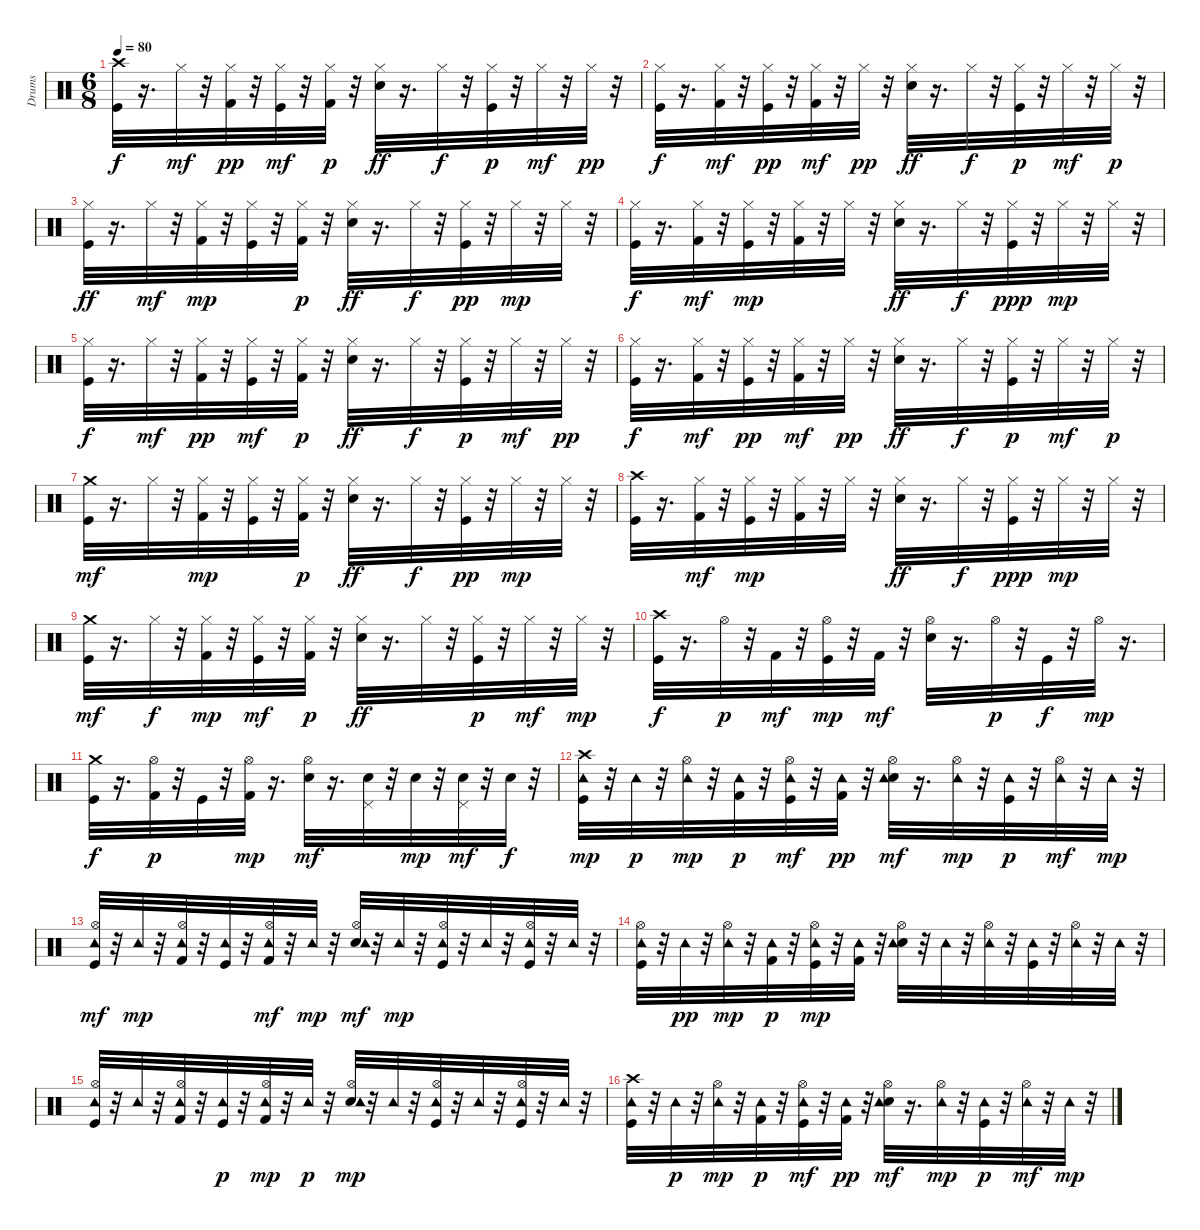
\track ("Drums" "Drums") {instrument percussion}
\staff {score}
\articulation defaults
\ts (6 8)
\tempo 80
\clef neutral
\ks c
("Kick (hit)" "Crash high (hit)").32{dy f} r.16{d} "Hi-Hat (closed)".32{dy mf} r.32 ("Kick (hit) 2" "Hi-Hat (closed)").32{dy pp} r.32 ("Kick (hit)" "Hi-Hat (closed)").32{dy mf} r.32 ("Kick (hit) 2" "Hi-Hat (closed)").32{dy p} r.32 ("Electric Snare (hit)" "Hi-Hat (closed)").32{dy ff} r.16{d} "Hi-Hat (closed)".32{dy f} r.32 ("Kick (hit)" "Hi-Hat (closed)").32{dy p} r.32 "Hi-Hat (closed)".32{dy mf} r.32 "Hi-Hat (closed)".32{dy pp} r.32 |
("Kick (hit)" "Hi-Hat (closed)").32{dy f} r.16{d} ("Kick (hit) 2" "Hi-Hat (closed)").32{dy mf} r.32 ("Kick (hit)" "Hi-Hat (closed)").32{dy pp} r.32 ("Kick (hit) 2" "Hi-Hat (closed)").32{dy mf} r.32 "Hi-Hat (closed)".32{dy pp} r.32 ("Electric Snare (hit)" "Hi-Hat (closed)").32{dy ff} r.16{d} "Hi-Hat (closed)".32{dy f} r.32 ("Kick (hit)" "Hi-Hat (closed)").32{dy p} r.32 "Hi-Hat (closed)".32{dy mf} r.32 "Hi-Hat (closed)".32{dy p} r.32 |
("Kick (hit)" "Hi-Hat (closed)").32{dy ff} r.16{d} "Hi-Hat (closed)".32{dy mf} r.32 ("Kick (hit) 2" "Hi-Hat (closed)").32{dy mp} r.32 ("Kick (hit)" "Hi-Hat (closed)").32 r.32 ("Kick (hit) 2" "Hi-Hat (closed)").32{dy p} r.32 ("Electric Snare (hit)" "Hi-Hat (closed)").32{dy ff} r.16{d} "Hi-Hat (closed)".32{dy f} r.32 ("Kick (hit)" "Hi-Hat (closed)").32{dy pp} r.32 "Hi-Hat (closed)".32{dy mp} r.32 "Hi-Hat (closed)".32 r.32 |
("Kick (hit)" "Hi-Hat (closed)").32{dy f} r.16{d} ("Kick (hit) 2" "Hi-Hat (closed)").32{dy mf} r.32 ("Kick (hit)" "Hi-Hat (closed)").32{dy mp} r.32 ("Kick (hit) 2" "Hi-Hat (closed)").32 r.32 "Hi-Hat (closed)".32 r.32 ("Electric Snare (hit)" "Hi-Hat (closed)").32{dy ff} r.16{d} "Hi-Hat (closed)".32{dy f} r.32 ("Kick (hit)" "Hi-Hat (closed)").32{dy ppp} r.32 "Hi-Hat (closed)".32{dy mp} r.32 "Hi-Hat (closed)".32 r.32 |
("Kick (hit)" "Hi-Hat (closed)").32{dy f} r.16{d} "Hi-Hat (closed)".32{dy mf} r.32 ("Kick (hit) 2" "Hi-Hat (closed)").32{dy pp} r.32 ("Kick (hit)" "Hi-Hat (closed)").32{dy mf} r.32 ("Kick (hit) 2" "Hi-Hat (closed)").32{dy p} r.32 ("Electric Snare (hit)" "Hi-Hat (closed)").32{dy ff} r.16{d} "Hi-Hat (closed)".32{dy f} r.32 ("Kick (hit)" "Hi-Hat (closed)").32{dy p} r.32 "Hi-Hat (closed)".32{dy mf} r.32 "Hi-Hat (closed)".32{dy pp} r.32 |
("Kick (hit)" "Hi-Hat (closed)").32{dy f} r.16{d} ("Kick (hit) 2" "Hi-Hat (closed)").32{dy mf} r.32 ("Kick (hit)" "Hi-Hat (closed)").32{dy pp} r.32 ("Kick (hit) 2" "Hi-Hat (closed)").32{dy mf} r.32 "Hi-Hat (closed)".32{dy pp} r.32 ("Electric Snare (hit)" "Hi-Hat (closed)").32{dy ff} r.16{d} "Hi-Hat (closed)".32{dy f} r.32 ("Kick (hit)" "Hi-Hat (closed)").32{dy p} r.32 "Hi-Hat (closed)".32{dy mf} r.32 "Hi-Hat (closed)".32{dy p} r.32 |
("Kick (hit)" "Crash medium (hit)").32{dy mf} r.16{d} "Hi-Hat (closed)".32 r.32 ("Kick (hit) 2" "Hi-Hat (closed)").32{dy mp} r.32 ("Kick (hit)" "Hi-Hat (closed)").32 r.32 ("Kick (hit) 2" "Hi-Hat (closed)").32{dy p} r.32 ("Electric Snare (hit)" "Hi-Hat (closed)").32{dy ff} r.16{d} "Hi-Hat (closed)".32{dy f} r.32 ("Kick (hit)" "Hi-Hat (closed)").32{dy pp} r.32 "Hi-Hat (closed)".32{dy mp} r.32 "Hi-Hat (closed)".32 r.32 |
("Kick (hit)" "Crash high (hit)").32 r.16{d} ("Kick (hit) 2" "Hi-Hat (closed)").32{dy mf} r.32 ("Kick (hit)" "Hi-Hat (closed)").32{dy mp} r.32 ("Kick (hit) 2" "Hi-Hat (closed)").32 r.32 "Hi-Hat (closed)".32 r.32 ("Electric Snare (hit)" "Hi-Hat (closed)").32{dy ff} r.16{d} "Hi-Hat (closed)".32{dy f} r.32 ("Kick (hit)" "Hi-Hat (closed)").32{dy ppp} r.32 "Hi-Hat (closed)".32{dy mp} r.32 "Hi-Hat (closed)".32 r.32 |
("Kick (hit)" "Crash medium (hit)").32{dy mf} r.16{d} "Hi-Hat (closed)".32{dy f} r.32 ("Kick (hit) 2" "Hi-Hat (closed)").32{dy mp} r.32 ("Kick (hit)" "Hi-Hat (closed)").32{dy mf} r.32 ("Kick (hit) 2" "Hi-Hat (closed)").32{dy p} r.32 ("Electric Snare (hit)" "Hi-Hat (closed)").32{dy ff} r.16{d} "Hi-Hat (closed)".32 r.32 ("Kick (hit)" "Hi-Hat (closed)").32{dy p} r.32 "Hi-Hat (closed)".32{dy mf} r.32 "Hi-Hat (closed)".32{dy mp} r.32 |
("Kick (hit)" "Crash high (hit)").32{dy f} r.16{d} "Hi-Hat (open)".32{dy p} r.32 "Kick (hit) 2".32{dy mf} r.32 ("Kick (hit)" "Hi-Hat (open)").32{dy mp} r.32 "Kick (hit) 2".32{dy mf} r.32 ("Electric Snare (hit)" "Hi-Hat (open)").32 r.16{d} "Hi-Hat (open)".32{dy p} r.32 "Kick (hit)".32{dy f} r.32 "Hi-Hat (open)".32{dy mp} r.16{d} |
("Kick (hit)" "Crash medium (hit)").32{dy f} r.16{d} ("Kick (hit) 2" "Hi-Hat (open)").32{dy p} r.32 "Kick (hit)".32 r.32 ("Kick (hit) 2" "Hi-Hat (open)").32{dy mp} r.16{d} ("Electric Snare (hit)" "Hi-Hat (open)").32{dy mf} r.16{d} ("Electric Snare (hit)" "Pedal Hi-Hat (hit)").32 r.32 "Electric Snare (hit)".32{dy mp} r.32 ("Electric Snare (hit)" "Pedal Hi-Hat (hit)").32{dy mf} r.32 "Electric Snare (hit)".32{dy f} r.32 |
("Kick (hit)" "Crash high (hit)" "Tambourine (hit)").32{dy mp} r.32 "Tambourine (hit)".32{dy p} r.32 ("Hi-Hat (open)" "Tambourine (hit)").32{dy mp} r.32 ("Kick (hit) 2" "Tambourine (hit)").32{dy p} r.32 ("Kick (hit)" "Hi-Hat (open)" "Tambourine (hit)").32{dy mf} r.32 ("Kick (hit) 2" "Tambourine (hit)").32{dy pp} r.32 ("Electric Snare (hit)" "Hi-Hat (open)" "Tambourine (hit)").32{dy mf} r.16{d} ("Hi-Hat (open)" "Tambourine (hit)").32{dy mp} r.32 ("Kick (hit)" "Tambourine (hit)").32{dy p} r.32 ("Hi-Hat (open)" "Tambourine (hit)").32{dy mf} r.32 "Tambourine (hit)".32{dy mp} r.32 |
("Kick (hit)" "Hi-Hat (open)" "Tambourine (hit)").32{dy mf} r.32 "Tambourine (hit)".32{dy mp} r.32 ("Kick (hit) 2" "Hi-Hat (open)" "Tambourine (hit)").32 r.32 ("Kick (hit)" "Tambourine (hit)").32 r.32 ("Kick (hit) 2" "Hi-Hat (open)" "Tambourine (hit)").32{dy mf} r.32 "Tambourine (hit)".32{dy mp} r.32 ("Electric Snare (hit)" "Hi-Hat (open)" "Tambourine (hit)").32{dy mf} r.32 "Tambourine (hit)".32{dy mp} r.32 ("Kick (hit)" "Hi-Hat (open)" "Tambourine (hit)").32 r.32 "Tambourine (hit)".32 r.32 ("Kick (hit)" "Hi-Hat (open)" "Tambourine (hit)").32 r.32 "Tambourine (hit)".32 r.32 |
("Kick (hit)" "Hi-Hat (open)" "Tambourine (hit)").32 r.32 "Tambourine (hit)".32{dy pp} r.32 ("Hi-Hat (open)" "Tambourine (hit)").32{dy mp} r.32 ("Kick (hit) 2" "Tambourine (hit)").32{dy p} r.32 ("Kick (hit)" "Hi-Hat (open)" "Tambourine (hit)").32{dy mp} r.32 ("Kick (hit) 2" "Tambourine (hit)").32 r.32 ("Electric Snare (hit)" "Hi-Hat (open)" "Tambourine (hit)").32 r.32 "Tambourine (hit)".32 r.32 ("Hi-Hat (open)" "Tambourine (hit)").32 r.32 ("Kick (hit)" "Tambourine (hit)").32 r.32 ("Hi-Hat (open)" "Tambourine (hit)").32 r.32 "Tambourine (hit)".32 r.32 |
("Kick (hit)" "Hi-Hat (open)" "Tambourine (hit)").32 r.32 "Tambourine (hit)".32 r.32 ("Kick (hit) 2" "Hi-Hat (open)" "Tambourine (hit)").32 r.32 ("Kick (hit)" "Tambourine (hit)").32{dy p} r.32 ("Kick (hit) 2" "Hi-Hat (open)" "Tambourine (hit)").32{dy mp} r.32 "Tambourine (hit)".32{dy p} r.32 ("Electric Snare (hit)" "Hi-Hat (open)" "Tambourine (hit)").32{dy mp} r.32 "Tambourine (hit)".32 r.32 ("Kick (hit)" "Hi-Hat (open)" "Tambourine (hit)").32 r.32 "Tambourine (hit)".32 r.32 ("Kick (hit)" "Hi-Hat (open)" "Tambourine (hit)").32 r.32 "Tambourine (hit)".32 r.32 |
("Kick (hit)" "Crash high (hit)" "Tambourine (hit)").32 r.32 "Tambourine (hit)".32{dy p} r.32 ("Hi-Hat (open)" "Tambourine (hit)").32{dy mp} r.32 ("Kick (hit) 2" "Tambourine (hit)").32{dy p} r.32 ("Kick (hit)" "Hi-Hat (open)" "Tambourine (hit)").32{dy mf} r.32 ("Kick (hit) 2" "Tambourine (hit)").32{dy pp} r.32 ("Electric Snare (hit)" "Hi-Hat (open)" "Tambourine (hit)").32{dy mf} r.16{d} ("Hi-Hat (open)" "Tambourine (hit)").32{dy mp} r.32 ("Kick (hit)" "Tambourine (hit)").32{dy p} r.32 ("Hi-Hat (open)" "Tambourine (hit)").32{dy mf} r.32 "Tambourine (hit)".32{dy mp} r.32
